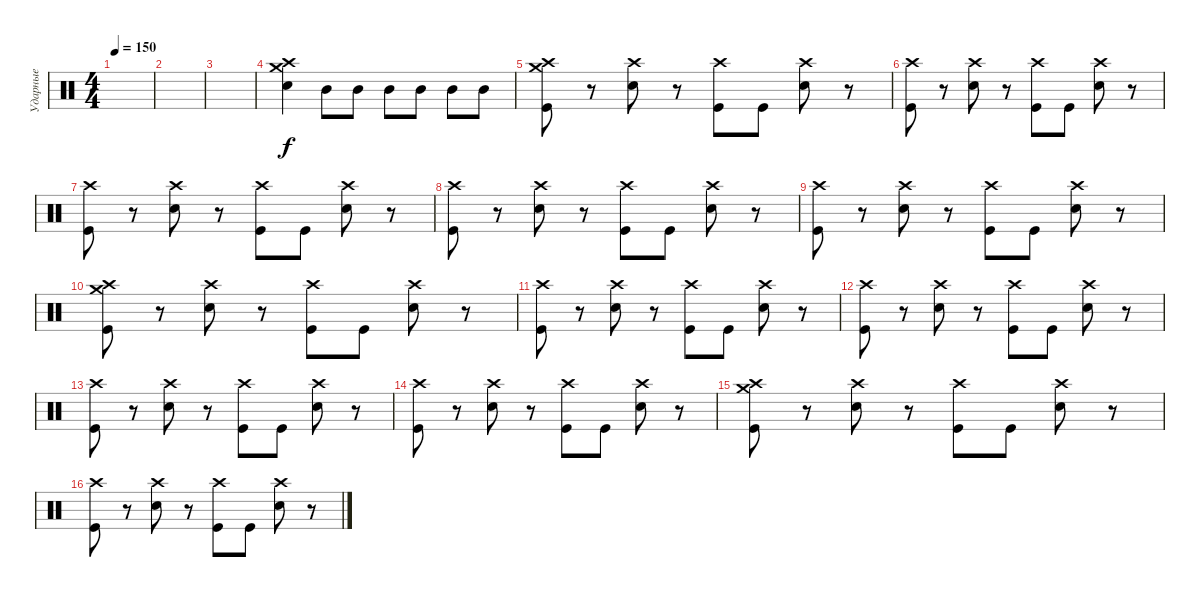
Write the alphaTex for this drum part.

\track ("Ударные" "Ударные") {instrument percussion}
\staff {score}
\articulation defaults
\ts (4 4)
\tempo 150
\clef neutral
\ks c
|
|
|
("Crash medium (hit)" "Crash high (hit)" "Electric Snare (hit)").4 "Mid Tom (hit)".8 "Mid Tom (hit)".8 "Mid Tom (hit)".8 "Mid Tom (hit)".8 "Mid Tom (hit)".8 "Mid Tom (hit)".8 |
("Crash medium (hit)" "Kick (hit)" "Crash high (hit)").8 r.8 ("Crash high (hit)" "Electric Snare (hit)").8 r.8 ("Crash high (hit)" "Kick (hit)").8 "Kick (hit)".8 ("Crash high (hit)" "Electric Snare (hit)").8 r.8 |
("Crash high (hit)" "Kick (hit)").8 r.8 ("Crash high (hit)" "Electric Snare (hit)").8 r.8 ("Crash high (hit)" "Kick (hit)").8 "Kick (hit)".8 ("Crash high (hit)" "Electric Snare (hit)").8 r.8 |
("Crash high (hit)" "Kick (hit)").8 r.8 ("Crash high (hit)" "Electric Snare (hit)").8 r.8 ("Crash high (hit)" "Kick (hit)").8 "Kick (hit)".8 ("Crash high (hit)" "Electric Snare (hit)").8 r.8 |
("Crash high (hit)" "Kick (hit)").8 r.8 ("Crash high (hit)" "Electric Snare (hit)").8 r.8 ("Crash high (hit)" "Kick (hit)").8 "Kick (hit)".8 ("Crash high (hit)" "Electric Snare (hit)").8 r.8 |
("Crash high (hit)" "Kick (hit)").8 r.8 ("Crash high (hit)" "Electric Snare (hit)").8 r.8 ("Crash high (hit)" "Kick (hit)").8 "Kick (hit)".8 ("Crash high (hit)" "Electric Snare (hit)").8 r.8 |
("Crash medium (hit)" "Kick (hit)" "Crash high (hit)").8 r.8 ("Crash high (hit)" "Electric Snare (hit)").8 r.8 ("Crash high (hit)" "Kick (hit)").8 "Kick (hit)".8 ("Crash high (hit)" "Electric Snare (hit)").8 r.8 |
("Crash high (hit)" "Kick (hit)").8 r.8 ("Crash high (hit)" "Electric Snare (hit)").8 r.8 ("Crash high (hit)" "Kick (hit)").8 "Kick (hit)".8 ("Crash high (hit)" "Electric Snare (hit)").8 r.8 |
("Crash high (hit)" "Kick (hit)").8 r.8 ("Crash high (hit)" "Electric Snare (hit)").8 r.8 ("Crash high (hit)" "Kick (hit)").8 "Kick (hit)".8 ("Crash high (hit)" "Electric Snare (hit)").8 r.8 |
("Crash high (hit)" "Kick (hit)").8 r.8 ("Crash high (hit)" "Electric Snare (hit)").8 r.8 ("Crash high (hit)" "Kick (hit)").8 "Kick (hit)".8 ("Crash high (hit)" "Electric Snare (hit)").8 r.8 |
("Crash high (hit)" "Kick (hit)").8 r.8 ("Crash high (hit)" "Electric Snare (hit)").8 r.8 ("Crash high (hit)" "Kick (hit)").8 "Kick (hit)".8 ("Crash high (hit)" "Electric Snare (hit)").8 r.8 |
("Crash medium (hit)" "Kick (hit)" "Crash high (hit)").8 r.8 ("Crash high (hit)" "Electric Snare (hit)").8 r.8 ("Crash high (hit)" "Kick (hit)").8 "Kick (hit)".8 ("Crash high (hit)" "Electric Snare (hit)").8 r.8 |
("Crash high (hit)" "Kick (hit)").8 r.8 ("Crash high (hit)" "Electric Snare (hit)").8 r.8 ("Crash high (hit)" "Kick (hit)").8 "Kick (hit)".8 ("Crash high (hit)" "Electric Snare (hit)").8 r.8
